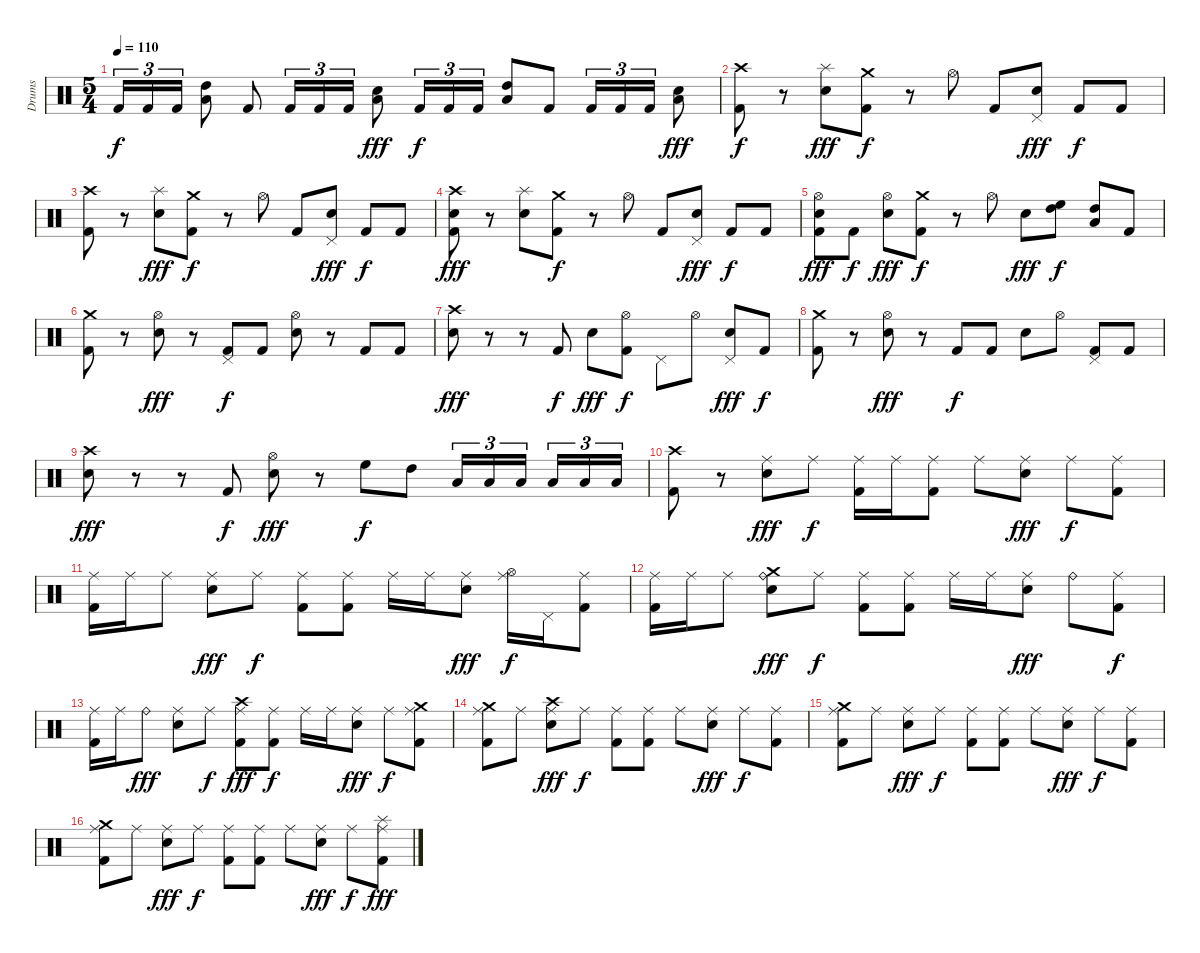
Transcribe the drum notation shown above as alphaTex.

\track ("Drums" "Drums") {instrument percussion}
\staff {score}
\articulation defaults
\ts (5 4)
\tempo 110
\clef neutral
\ks c "Kick (hit) 2".16{tu (3 2) dy f} "Kick (hit) 2".16{tu (3 2)} "Kick (hit) 2".16{tu (3 2)}
("Low Tom (hit)" "High Tom (hit)").8 "Kick (hit) 2".8 "Kick (hit) 2".16{tu (3 2)} "Kick (hit) 2".16{tu (3 2)} "Kick (hit) 2".16{tu (3 2)} ("Low Tom (hit)" "Electric Snare (hit)").8{dy fff} "Kick (hit) 2".16{tu (3 2) dy f} "Kick (hit) 2".16{tu (3 2)} "Kick (hit) 2".16{tu (3 2)} ("Low Tom (hit)" "High Tom (hit)").8 "Kick (hit) 2".8 "Kick (hit) 2".16{tu (3 2)} "Kick (hit) 2".16{tu (3 2)} "Kick (hit) 2".16{tu (3 2)} ("Low Tom (hit)" "Electric Snare (hit)").8{dy fff} |
("Crash high (hit)" "Kick (hit) 2").8{dy f} r.8 ("Splash (hit)" "Electric Snare (hit)").8{dy fff} ("Crash medium (hit)" "Kick (hit) 2").8{dy f} r.8 "Hi-Hat (open)".8 "Kick (hit) 2".8 ("Pedal Hi-Hat (hit)" "Electric Snare (hit)").8{dy fff} "Kick (hit) 2".8{dy f} "Kick (hit) 2".8 |
("Crash high (hit)" "Kick (hit) 2").8 r.8 ("Splash (hit)" "Electric Snare (hit)").8{dy fff} ("Crash medium (hit)" "Kick (hit) 2").8{dy f} r.8 "Hi-Hat (open)".8 "Kick (hit) 2".8 ("Pedal Hi-Hat (hit)" "Electric Snare (hit)").8{dy fff} "Kick (hit) 2".8{dy f} "Kick (hit) 2".8 |
("Crash high (hit)" "Electric Snare (hit)" "Kick (hit) 2").8{dy fff} r.8 ("Splash (hit)" "Electric Snare (hit)").8 ("Crash medium (hit)" "Kick (hit) 2").8{dy f} r.8 "Hi-Hat (open)".8 "Kick (hit) 2".8 ("Pedal Hi-Hat (hit)" "Electric Snare (hit)").8{dy fff} "Kick (hit) 2".8{dy f} "Kick (hit) 2".8 |
("Hi-Hat (open)" "Electric Snare (hit)" "Kick (hit) 2").8{dy fff} "Kick (hit) 2".8{dy f} ("Hi-Hat (open)" "Electric Snare (hit)").8{dy fff} ("Crash medium (hit)" "Kick (hit) 2").8{dy f} r.8 "Hi-Hat (open)".8 "Electric Snare (hit)".8{dy fff} ("High Tom (hit)" "High Floor Tom (hit)").8{dy f} ("Low Tom (hit)" "High Tom (hit)").8 "Kick (hit) 2".8 |
("Crash medium (hit)" "Kick (hit) 2").8 r.8 ("Hi-Hat (open)" "Electric Snare (hit)").8{dy fff} r.8 ("Pedal Hi-Hat (hit)" "Kick (hit) 2").8{dy f} "Kick (hit) 2".8 ("Hi-Hat (open)" "Electric Snare (hit)").8 r.8 "Kick (hit) 2".8 "Kick (hit) 2".8 |
("Crash high (hit)" "Electric Snare (hit)").8{dy fff} r.8 r.8 "Kick (hit) 2".8{dy f} "Electric Snare (hit)".8{dy fff} ("Hi-Hat (open)" "Kick (hit) 2").8{dy f} "Pedal Hi-Hat (hit)".8 "Hi-Hat (open)".8 ("Pedal Hi-Hat (hit)" "Electric Snare (hit)").8{dy fff} "Kick (hit) 2".8{dy f} |
("Crash medium (hit)" "Kick (hit) 2").8 r.8 ("Hi-Hat (open)" "Electric Snare (hit)").8{dy fff} r.8 "Kick (hit) 2".8{dy f} "Kick (hit) 2".8 "Electric Snare (hit)".8 "Hi-Hat (open)".8 ("Pedal Hi-Hat (hit)" "Kick (hit) 2").8 "Kick (hit) 2".8 |
("Crash high (hit)" "Electric Snare (hit)").8{dy fff} r.8 r.8 "Kick (hit) 2".8{dy f} ("Hi-Hat (open)" "Electric Snare (hit)").8{dy fff} r.8 "High Floor Tom (hit)".8{dy f} "High Tom (hit)".8 "Low Tom (hit)".16{tu (3 2)} "Low Tom (hit)".16{tu (3 2)} "Low Tom (hit)".16{tu (3 2)} "Low Floor Tom (hit)".16{tu (3 2)} "Low Floor Tom (hit)".16{tu (3 2)} "Low Floor Tom (hit)".16{tu (3 2)} |
("Crash high (hit)" "Kick (hit) 2").8 r.8 ("Ride (middle)" "Electric Snare (hit)").8{dy fff} "Ride (middle)".8{dy f} ("Ride (middle)" "Kick (hit) 2").16 "Ride (middle)".16 ("Ride (middle)" "Kick (hit) 2").8 "Ride (middle)".8 ("Ride (middle)" "Electric Snare (hit)").8{dy fff} "Ride (middle)".8{dy f} ("Ride (middle)" "Kick (hit) 2").8 |
("Ride (middle)" "Kick (hit) 2").16 "Ride (middle)".16 "Ride (middle)".8 ("Ride (middle)" "Electric Snare (hit)").8{dy fff} "Ride (middle)".8{dy f} ("Ride (middle)" "Kick (hit) 2").8 ("Ride (middle)" "Kick (hit) 2").8 "Ride (middle)".16 "Ride (middle)".16 ("Ride (middle)" "Electric Snare (hit)").8{dy fff} ("Ride (middle)" "Hi-Hat (open)").16{dy f} "Pedal Hi-Hat (hit)".16 ("Ride (middle)" "Kick (hit) 2").8 |
("Ride (middle)" "Kick (hit) 2").16 "Ride (middle)".16 "Ride (middle)".8 ("Ride (bell)" "Crash medium (hit)" "Electric Snare (hit)").8{dy fff} "Ride (middle)".8{dy f} ("Ride (middle)" "Kick (hit) 2").8 ("Ride (middle)" "Kick (hit) 2").8 "Ride (middle)".16 "Ride (middle)".16 ("Ride (middle)" "Electric Snare (hit)").8{dy fff} "Ride (bell)".8 ("Ride (middle)" "Kick (hit) 2").8{dy f} |
("Ride (middle)" "Kick (hit) 2").16 "Ride (middle)".16 "Ride (bell)".8{dy fff} ("Ride (middle)" "Electric Snare (hit)").8 "Ride (middle)".8{dy f} ("Ride (middle)" "Crash high (hit)" "Kick (hit) 2").8{dy fff} ("Ride (middle)" "Kick (hit) 2").8{dy f} "Ride (middle)".16 "Ride (middle)".16 ("Ride (middle)" "Electric Snare (hit)").8{dy fff} "Ride (middle)".8{dy f} ("Ride (middle)" "Crash medium (hit)" "Kick (hit) 2").8 |
("Ride (middle)" "Crash medium (hit)" "Kick (hit) 2").8 "Ride (middle)".8 ("Ride (middle)" "Crash high (hit)" "Electric Snare (hit)").8{dy fff} "Ride (middle)".8{dy f} ("Ride (middle)" "Kick (hit) 2").8 ("Ride (middle)" "Kick (hit) 2").8 "Ride (middle)".8 ("Ride (middle)" "Electric Snare (hit)").8{dy fff} "Ride (middle)".8{dy f} ("Ride (middle)" "Kick (hit) 2").8 |
("Ride (middle)" "Crash medium (hit)" "Kick (hit) 2").8 "Ride (middle)".8 ("Ride (middle)" "Electric Snare (hit)").8{dy fff} "Ride (middle)".8{dy f} ("Ride (middle)" "Kick (hit) 2").8 ("Ride (middle)" "Kick (hit) 2").8 "Ride (middle)".8 ("Ride (middle)" "Electric Snare (hit)").8{dy fff} "Ride (middle)".8{dy f} ("Ride (middle)" "Kick (hit) 2").8 |
("Ride (middle)" "Crash medium (hit)" "Kick (hit) 2").8 "Ride (middle)".8 ("Ride (middle)" "Electric Snare (hit)").8{dy fff} "Ride (middle)".8{dy f} ("Ride (middle)" "Kick (hit) 2").8 ("Ride (middle)" "Kick (hit) 2").8 "Ride (middle)".8 ("Ride (middle)" "Electric Snare (hit)").8{dy fff} "Ride (middle)".8{dy f} ("Ride (middle)" "Splash (hit)" "Kick (hit) 2").8{dy fff}
